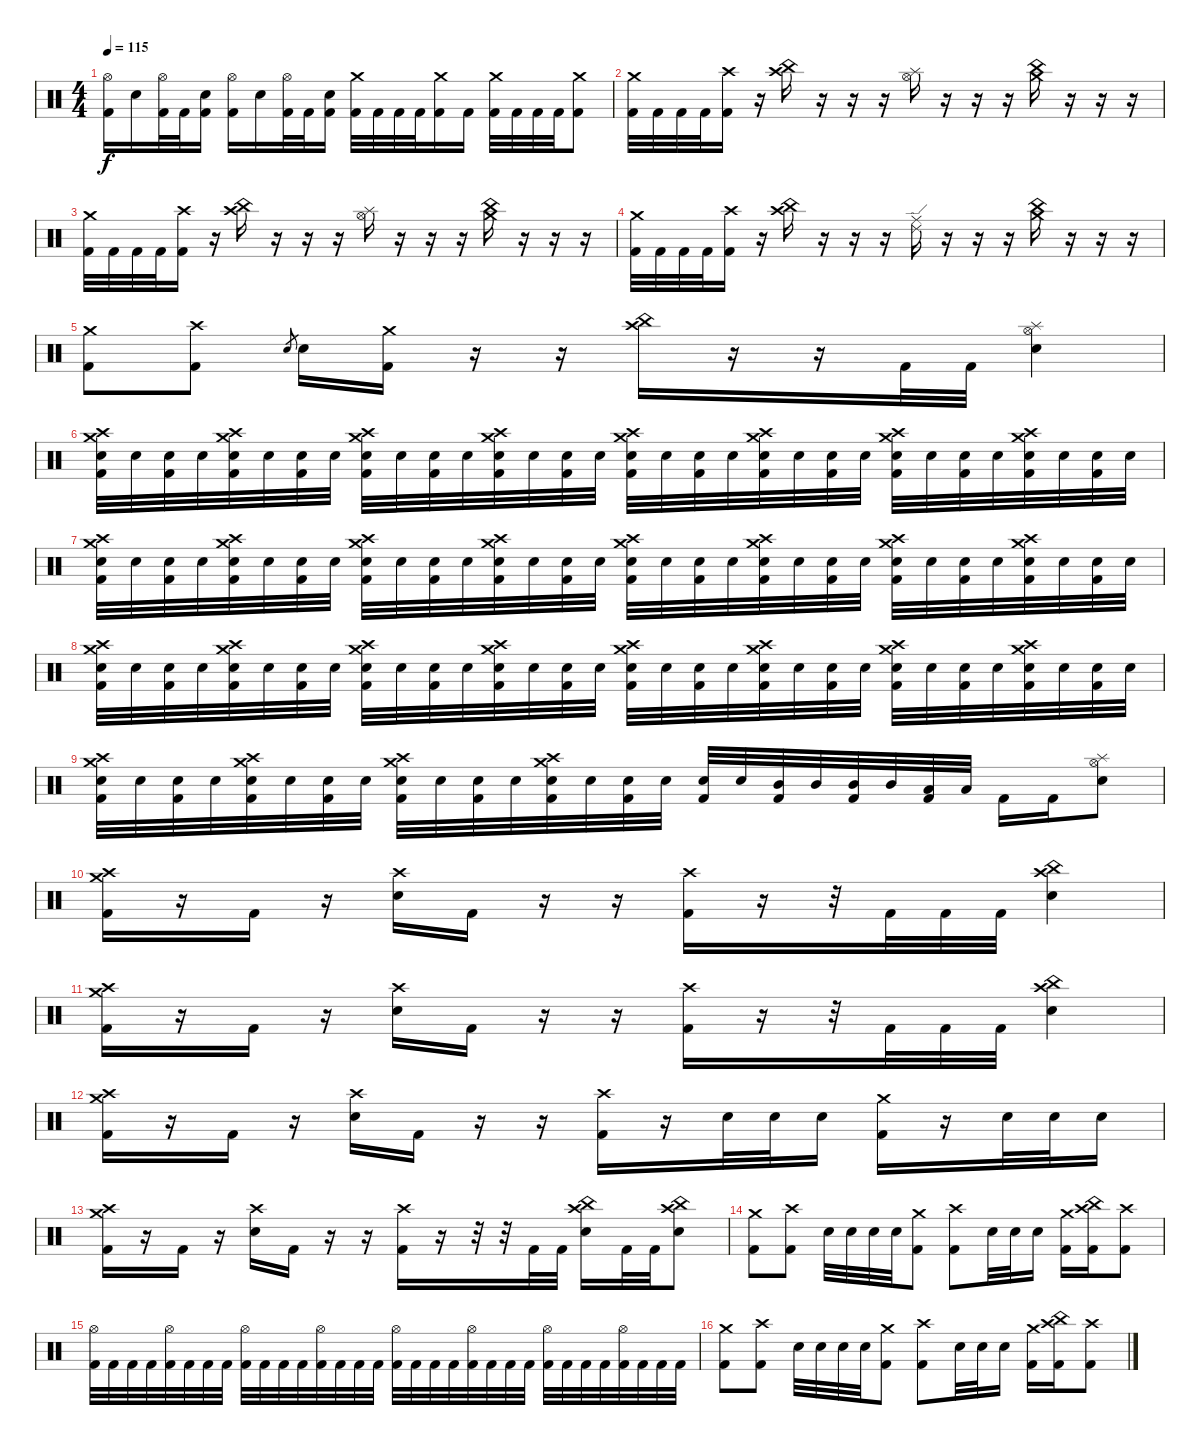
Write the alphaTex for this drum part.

\track "" {instrument percussion}
\staff {score}
\articulation defaults
\ts (4 4)
\tempo 115
\clef neutral
\ks c
("Kick (hit) 2" "Hi-Hat (open)").16{dy f} "Electric Snare (hit)".16 ("Kick (hit) 2" "Hi-Hat (open)").32 "Kick (hit) 2".32 ("Kick (hit) 2" "Electric Snare (hit)").16 ("Kick (hit) 2" "Hi-Hat (open)").16 "Electric Snare (hit)".16 ("Kick (hit) 2" "Hi-Hat (open)").32 "Kick (hit) 2".32 ("Kick (hit) 2" "Electric Snare (hit)").16 ("Kick (hit) 2" "Crash medium (hit)").32 "Kick (hit) 2".32 "Kick (hit) 2".32 "Kick (hit) 2".32 ("Kick (hit) 2" "Crash medium (hit)").16 "Kick (hit) 2".16 ("Kick (hit) 2" "Crash medium (hit)").32 "Kick (hit) 2".32 "Kick (hit) 2".32 "Kick (hit) 2".32 ("Kick (hit) 2" "Crash medium (hit)").8 |
("Kick (hit) 2" "Crash medium (hit)").32 "Kick (hit) 2".32 "Kick (hit) 2".32 "Kick (hit) 2".32 ("Kick (hit) 2" "Crash high (hit)").16 r.16 ("Crash high (hit)" "China (hit)").16 r.16 r.16 r.16 ("Splash (hit)" "Hi-Hat (open)").16 r.16 r.16 r.16 ("Crash medium (hit)" "China (hit)").16 r.16 r.16 r.16 |
("Kick (hit) 2" "Crash medium (hit)").32 "Kick (hit) 2".32 "Kick (hit) 2".32 "Kick (hit) 2".32 ("Kick (hit) 2" "Crash high (hit)").16 r.16 ("Crash high (hit)" "China (hit)").16 r.16 r.16 r.16 ("Splash (hit)" "Hi-Hat (open)").16 r.16 r.16 r.16 ("Crash medium (hit)" "China (hit)").16 r.16 r.16 r.16 |
("Kick (hit) 2" "Crash medium (hit)").32 "Kick (hit) 2".32 "Kick (hit) 2".32 "Kick (hit) 2".32 ("Kick (hit) 2" "Crash high (hit)").16 r.16 ("Crash high (hit)" "China (hit)").16 r.16 r.16 r.16 ("Ride (edge) 2" "Ride (middle)").16 r.16 r.16 r.16 ("Crash medium (hit)" "China (hit)").16 r.16 r.16 r.16 |
("Kick (hit) 2" "Crash medium (hit)").8 ("Kick (hit) 2" "Crash high (hit)").8 "Electric Snare (hit)".8{gr} "Electric Snare (hit)".16 ("Kick (hit) 2" "Crash medium (hit)").16 r.16 r.16 ("Crash high (hit)" "China (hit)").16 r.16 r.16 "Kick (hit) 2".32 "Kick (hit) 2".32 ("Electric Snare (hit)" "Hi-Hat (open)" "Splash (hit)").4 |
("Kick (hit) 2" "Electric Snare (hit)" "Crash high (hit)" "Crash medium (hit)").32 "Electric Snare (hit)".32 ("Kick (hit) 2" "Electric Snare (hit)").32 "Electric Snare (hit)".32 ("Kick (hit) 2" "Electric Snare (hit)" "Crash high (hit)" "Crash medium (hit)").32 "Electric Snare (hit)".32 ("Kick (hit) 2" "Electric Snare (hit)").32 "Electric Snare (hit)".32 ("Kick (hit) 2" "Electric Snare (hit)" "Crash high (hit)" "Crash medium (hit)").32 "Electric Snare (hit)".32 ("Kick (hit) 2" "Electric Snare (hit)").32 "Electric Snare (hit)".32 ("Kick (hit) 2" "Electric Snare (hit)" "Crash high (hit)" "Crash medium (hit)").32 "Electric Snare (hit)".32 ("Kick (hit) 2" "Electric Snare (hit)").32 "Electric Snare (hit)".32 ("Kick (hit) 2" "Electric Snare (hit)" "Crash high (hit)" "Crash medium (hit)").32 "Electric Snare (hit)".32 ("Kick (hit) 2" "Electric Snare (hit)").32 "Electric Snare (hit)".32 ("Kick (hit) 2" "Electric Snare (hit)" "Crash high (hit)" "Crash medium (hit)").32 "Electric Snare (hit)".32 ("Kick (hit) 2" "Electric Snare (hit)").32 "Electric Snare (hit)".32 ("Kick (hit) 2" "Electric Snare (hit)" "Crash high (hit)" "Crash medium (hit)").32 "Electric Snare (hit)".32 ("Kick (hit) 2" "Electric Snare (hit)").32 "Electric Snare (hit)".32 ("Kick (hit) 2" "Electric Snare (hit)" "Crash high (hit)" "Crash medium (hit)").32 "Electric Snare (hit)".32 ("Kick (hit) 2" "Electric Snare (hit)").32 "Electric Snare (hit)".32 |
("Kick (hit) 2" "Electric Snare (hit)" "Crash high (hit)" "Crash medium (hit)").32 "Electric Snare (hit)".32 ("Kick (hit) 2" "Electric Snare (hit)").32 "Electric Snare (hit)".32 ("Kick (hit) 2" "Electric Snare (hit)" "Crash high (hit)" "Crash medium (hit)").32 "Electric Snare (hit)".32 ("Kick (hit) 2" "Electric Snare (hit)").32 "Electric Snare (hit)".32 ("Kick (hit) 2" "Electric Snare (hit)" "Crash high (hit)" "Crash medium (hit)").32 "Electric Snare (hit)".32 ("Kick (hit) 2" "Electric Snare (hit)").32 "Electric Snare (hit)".32 ("Kick (hit) 2" "Electric Snare (hit)" "Crash high (hit)" "Crash medium (hit)").32 "Electric Snare (hit)".32 ("Kick (hit) 2" "Electric Snare (hit)").32 "Electric Snare (hit)".32 ("Kick (hit) 2" "Electric Snare (hit)" "Crash high (hit)" "Crash medium (hit)").32 "Electric Snare (hit)".32 ("Kick (hit) 2" "Electric Snare (hit)").32 "Electric Snare (hit)".32 ("Kick (hit) 2" "Electric Snare (hit)" "Crash high (hit)" "Crash medium (hit)").32 "Electric Snare (hit)".32 ("Kick (hit) 2" "Electric Snare (hit)").32 "Electric Snare (hit)".32 ("Kick (hit) 2" "Electric Snare (hit)" "Crash high (hit)" "Crash medium (hit)").32 "Electric Snare (hit)".32 ("Kick (hit) 2" "Electric Snare (hit)").32 "Electric Snare (hit)".32 ("Kick (hit) 2" "Electric Snare (hit)" "Crash high (hit)" "Crash medium (hit)").32 "Electric Snare (hit)".32 ("Kick (hit) 2" "Electric Snare (hit)").32 "Electric Snare (hit)".32 |
("Kick (hit) 2" "Electric Snare (hit)" "Crash high (hit)" "Crash medium (hit)").32 "Electric Snare (hit)".32 ("Kick (hit) 2" "Electric Snare (hit)").32 "Electric Snare (hit)".32 ("Kick (hit) 2" "Electric Snare (hit)" "Crash high (hit)" "Crash medium (hit)").32 "Electric Snare (hit)".32 ("Kick (hit) 2" "Electric Snare (hit)").32 "Electric Snare (hit)".32 ("Kick (hit) 2" "Electric Snare (hit)" "Crash high (hit)" "Crash medium (hit)").32 "Electric Snare (hit)".32 ("Kick (hit) 2" "Electric Snare (hit)").32 "Electric Snare (hit)".32 ("Kick (hit) 2" "Electric Snare (hit)" "Crash high (hit)" "Crash medium (hit)").32 "Electric Snare (hit)".32 ("Kick (hit) 2" "Electric Snare (hit)").32 "Electric Snare (hit)".32 ("Kick (hit) 2" "Electric Snare (hit)" "Crash high (hit)" "Crash medium (hit)").32 "Electric Snare (hit)".32 ("Kick (hit) 2" "Electric Snare (hit)").32 "Electric Snare (hit)".32 ("Kick (hit) 2" "Electric Snare (hit)" "Crash high (hit)" "Crash medium (hit)").32 "Electric Snare (hit)".32 ("Kick (hit) 2" "Electric Snare (hit)").32 "Electric Snare (hit)".32 ("Kick (hit) 2" "Electric Snare (hit)" "Crash high (hit)" "Crash medium (hit)").32 "Electric Snare (hit)".32 ("Kick (hit) 2" "Electric Snare (hit)").32 "Electric Snare (hit)".32 ("Kick (hit) 2" "Electric Snare (hit)" "Crash high (hit)" "Crash medium (hit)").32 "Electric Snare (hit)".32 ("Kick (hit) 2" "Electric Snare (hit)").32 "Electric Snare (hit)".32 |
("Kick (hit) 2" "Electric Snare (hit)" "Crash high (hit)" "Crash medium (hit)").32 "Electric Snare (hit)".32 ("Kick (hit) 2" "Electric Snare (hit)").32 "Electric Snare (hit)".32 ("Kick (hit) 2" "Electric Snare (hit)" "Crash high (hit)" "Crash medium (hit)").32 "Electric Snare (hit)".32 ("Kick (hit) 2" "Electric Snare (hit)").32 "Electric Snare (hit)".32 ("Kick (hit) 2" "Electric Snare (hit)" "Crash high (hit)" "Crash medium (hit)").32 "Electric Snare (hit)".32 ("Kick (hit) 2" "Electric Snare (hit)").32 "Electric Snare (hit)".32 ("Kick (hit) 2" "Electric Snare (hit)" "Crash high (hit)" "Crash medium (hit)").32 "Electric Snare (hit)".32 ("Kick (hit) 2" "Electric Snare (hit)").32 "Electric Snare (hit)".32 ("Kick (hit) 2" "Electric Snare (hit)").32 "Electric Snare (hit)".32 ("Kick (hit) 2" "Mid Tom (hit)").32 "Mid Tom (hit)".32 ("Kick (hit) 2" "Mid Tom (hit)").32 "Mid Tom (hit)".32 ("Kick (hit) 2" "Low Tom (hit)").32 "Low Tom (hit)".32 "Kick (hit) 2".16 "Kick (hit) 2".16 ("Electric Snare (hit)" "Hi-Hat (open)" "Splash (hit)").8 |
("Kick (hit) 2" "Crash high (hit)" "Crash medium (hit)").16 r.16 "Kick (hit) 2".16 r.16 ("Electric Snare (hit)" "Crash high (hit)").16 "Kick (hit) 2".16 r.16 r.16 ("Kick (hit) 2" "Crash high (hit)").16 r.16 r.32 "Kick (hit) 2".32 "Kick (hit) 2".32 "Kick (hit) 2".32 ("Electric Snare (hit)" "China (hit)" "Crash high (hit)").4 |
("Kick (hit) 2" "Crash high (hit)" "Crash medium (hit)").16 r.16 "Kick (hit) 2".16 r.16 ("Electric Snare (hit)" "Crash high (hit)").16 "Kick (hit) 2".16 r.16 r.16 ("Kick (hit) 2" "Crash high (hit)").16 r.16 r.32 "Kick (hit) 2".32 "Kick (hit) 2".32 "Kick (hit) 2".32 ("Electric Snare (hit)" "China (hit)" "Crash high (hit)").4 |
("Kick (hit) 2" "Crash high (hit)" "Crash medium (hit)").16 r.16 "Kick (hit) 2".16 r.16 ("Electric Snare (hit)" "Crash high (hit)").16 "Kick (hit) 2".16 r.16 r.16 ("Kick (hit) 2" "Crash high (hit)").16 r.16 "Electric Snare (hit)".32 "Electric Snare (hit)".32 "Electric Snare (hit)".16 ("Kick (hit) 2" "Crash medium (hit)").16 r.16 "Electric Snare (hit)".32 "Electric Snare (hit)".32 "Electric Snare (hit)".16 |
("Kick (hit) 2" "Crash high (hit)" "Crash medium (hit)").16 r.16 "Kick (hit) 2".16 r.16 ("Electric Snare (hit)" "Crash high (hit)").16 "Kick (hit) 2".16 r.16 r.16 ("Kick (hit) 2" "Crash high (hit)").16 r.16 r.32 r.32 "Kick (hit) 2".32 "Kick (hit) 2".32 ("Electric Snare (hit)" "China (hit)" "Crash high (hit)").16 "Kick (hit) 2".32 "Kick (hit) 2".32 ("Electric Snare (hit)" "China (hit)" "Crash high (hit)").8 |
("Kick (hit) 2" "Crash medium (hit)").8 ("Kick (hit) 2" "Crash high (hit)").8 "Electric Snare (hit)".32 "Electric Snare (hit)".32 "Electric Snare (hit)".32 "Electric Snare (hit)".32 ("Kick (hit) 2" "Crash medium (hit)").8 ("Kick (hit) 2" "Crash high (hit)").8 "Electric Snare (hit)".32 "Electric Snare (hit)".32 "Electric Snare (hit)".16 ("Kick (hit) 2" "Crash medium (hit)").16 ("Kick (hit) 2" "Crash high (hit)" "China (hit)").16 ("Kick (hit) 2" "Crash high (hit)").8 |
("Kick (hit) 2" "Hi-Hat (open)").32 "Kick (hit) 2".32 "Kick (hit) 2".32 "Kick (hit) 2".32 ("Kick (hit) 2" "Hi-Hat (open)").32 "Kick (hit) 2".32 "Kick (hit) 2".32 "Kick (hit) 2".32 ("Kick (hit) 2" "Hi-Hat (open)").32 "Kick (hit) 2".32 "Kick (hit) 2".32 "Kick (hit) 2".32 ("Kick (hit) 2" "Hi-Hat (open)").32 "Kick (hit) 2".32 "Kick (hit) 2".32 "Kick (hit) 2".32 ("Kick (hit) 2" "Hi-Hat (open)").32 "Kick (hit) 2".32 "Kick (hit) 2".32 "Kick (hit) 2".32 ("Kick (hit) 2" "Hi-Hat (open)").32 "Kick (hit) 2".32 "Kick (hit) 2".32 "Kick (hit) 2".32 ("Kick (hit) 2" "Hi-Hat (open)").32 "Kick (hit) 2".32 "Kick (hit) 2".32 "Kick (hit) 2".32 ("Kick (hit) 2" "Hi-Hat (open)").32 "Kick (hit) 2".32 "Kick (hit) 2".32 "Kick (hit) 2".32 |
("Kick (hit) 2" "Crash medium (hit)").8 ("Kick (hit) 2" "Crash high (hit)").8 "Electric Snare (hit)".32 "Electric Snare (hit)".32 "Electric Snare (hit)".32 "Electric Snare (hit)".32 ("Kick (hit) 2" "Crash medium (hit)").8 ("Kick (hit) 2" "Crash high (hit)").8 "Electric Snare (hit)".32 "Electric Snare (hit)".32 "Electric Snare (hit)".16 ("Kick (hit) 2" "Crash medium (hit)").16 ("Kick (hit) 2" "Crash high (hit)" "China (hit)").16 ("Kick (hit) 2" "Crash high (hit)").8
